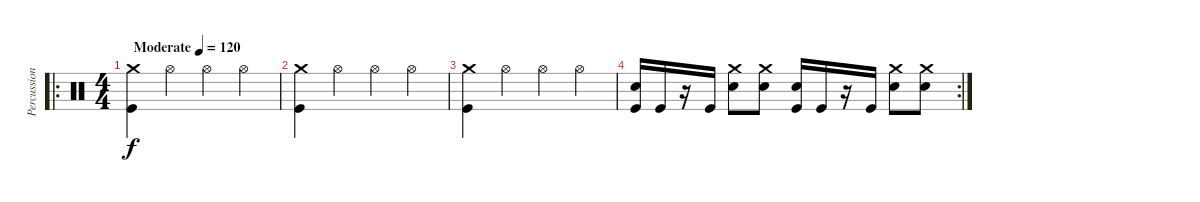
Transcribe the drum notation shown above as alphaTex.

\track ("Percussion" "Percussion") {instrument percussion}
\staff {score}
\articulation defaults
\ro
\ts (4 4)
\tempo (120 "Moderate")
\clef neutral
\ks c
("Crash medium (hit)" "Kick (hit)").4{dy f} "Hi-Hat (open)".4 "Hi-Hat (open)".4 "Hi-Hat (open)".4 |
("Crash medium (hit)" "Kick (hit)").4 "Hi-Hat (open)".4 "Hi-Hat (open)".4 "Hi-Hat (open)".4 |
("Crash medium (hit)" "Kick (hit)").4 "Hi-Hat (open)".4 "Hi-Hat (open)".4 "Hi-Hat (open)".4 |
\rc 2
("Snare (hit) 2" "Kick (hit)").16 "Kick (hit)".16 r.16 "Kick (hit)".16 ("Crash medium (hit)" "Snare (hit) 2").8 ("Crash medium (hit)" "Snare (hit) 2").8 ("Snare (hit) 2" "Kick (hit)").16 "Kick (hit)".16 r.16 "Kick (hit)".16 ("Crash medium (hit)" "Snare (hit) 2").8 ("Crash medium (hit)" "Snare (hit) 2").8
